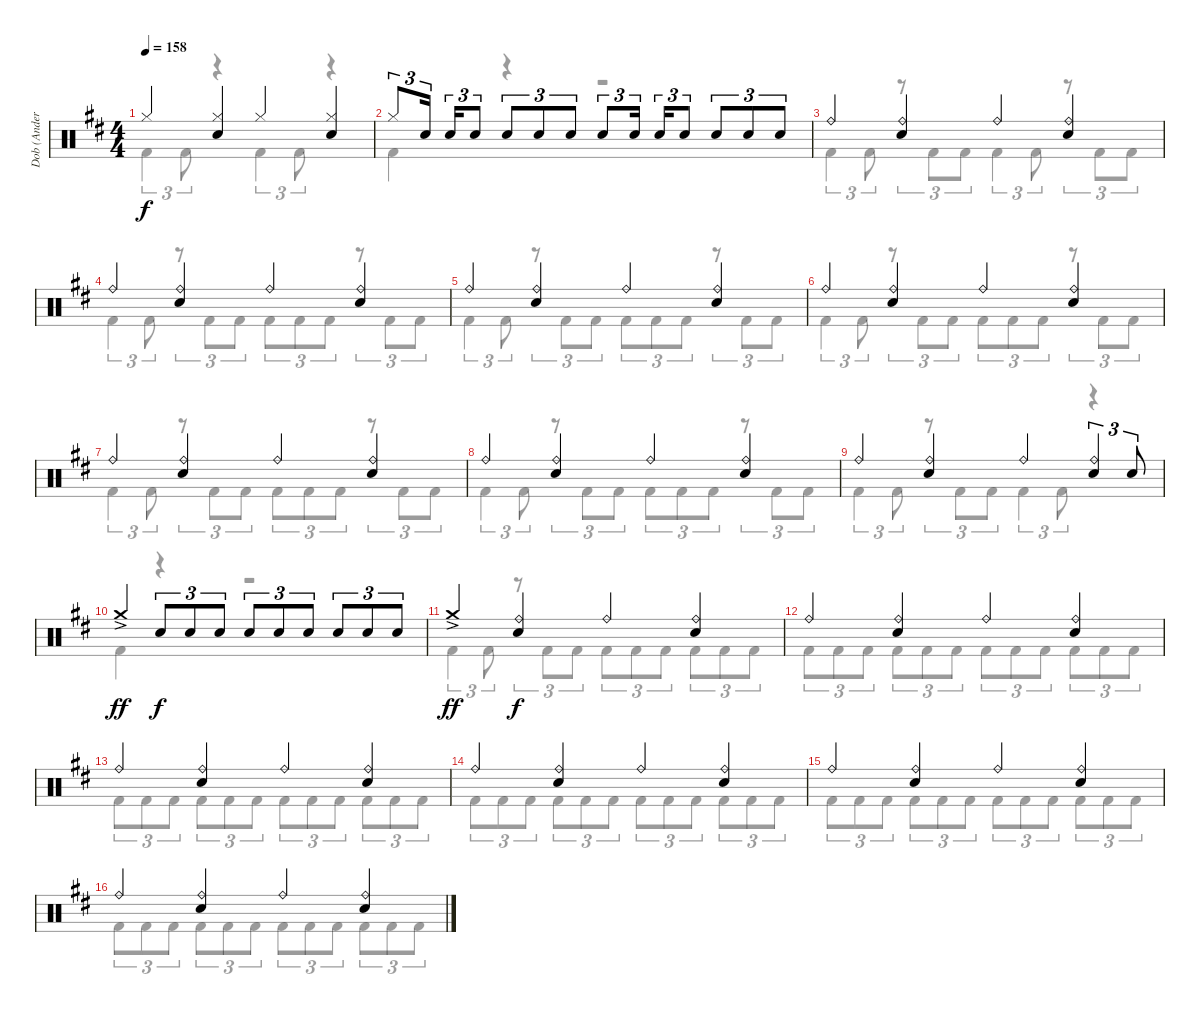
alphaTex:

\track ("Dob (Anders Johansson)" "Dob (Ander") {instrument percussion}
\staff {score}
\articulation defaults
\voice
\ts (4 4)
\tempo 158
\clef neutral
\ks d "Hi-Hat (closed)".4{dy f}
("Hi-Hat (closed)" "Electric Snare (hit)").4 "Hi-Hat (closed)".4 ("Hi-Hat (closed)" "Electric Snare (hit)").4 |
"Hi-Hat (closed)".8{tu (3 2)} "Electric Snare (hit)".16{tu (3 2)} "Electric Snare (hit)".16{tu (3 2)} "Electric Snare (hit)".8{tu (3 2)} "Electric Snare (hit)".8{tu (3 2)} "Electric Snare (hit)".8{tu (3 2)} "Electric Snare (hit)".8{tu (3 2)} "Electric Snare (hit)".8{tu (3 2)} "Electric Snare (hit)".16{tu (3 2)} "Electric Snare (hit)".16{tu (3 2)} "Electric Snare (hit)".8{tu (3 2)} "Electric Snare (hit)".8{tu (3 2)} "Electric Snare (hit)".8{tu (3 2)} "Electric Snare (hit)".8{tu (3 2)} |
"Ride (bell)".4 ("Ride (bell)" "Electric Snare (hit)").4 "Ride (bell)".4 ("Ride (bell)" "Electric Snare (hit)").4 |
"Ride (bell)".4 ("Ride (bell)" "Electric Snare (hit)").4 "Ride (bell)".4 ("Ride (bell)" "Electric Snare (hit)").4 |
"Ride (bell)".4 ("Ride (bell)" "Electric Snare (hit)").4 "Ride (bell)".4 ("Ride (bell)" "Electric Snare (hit)").4 |
"Ride (bell)".4 ("Ride (bell)" "Electric Snare (hit)").4 "Ride (bell)".4 ("Ride (bell)" "Electric Snare (hit)").4 |
"Ride (bell)".4 ("Ride (bell)" "Electric Snare (hit)").4 "Ride (bell)".4 ("Ride (bell)" "Electric Snare (hit)").4 |
"Ride (bell)".4 ("Ride (bell)" "Electric Snare (hit)").4 "Ride (bell)".4 ("Ride (bell)" "Electric Snare (hit)").4 |
"Ride (bell)".4 ("Ride (bell)" "Electric Snare (hit)").4 "Ride (bell)".4 ("Ride (bell)" "Electric Snare (hit)").4{tu (3 2)} "Electric Snare (hit)".8{tu (3 2)} |
"Crash medium (hit)"{ac}.4{dy ff} "Electric Snare (hit)".8{tu (3 2) dy f} "Electric Snare (hit)".8{tu (3 2)} "Electric Snare (hit)".8{tu (3 2)} "Electric Snare (hit)".8{tu (3 2)} "Electric Snare (hit)".8{tu (3 2)} "Electric Snare (hit)".8{tu (3 2)} "Electric Snare (hit)".8{tu (3 2)} "Electric Snare (hit)".8{tu (3 2)} "Electric Snare (hit)".8{tu (3 2)} |
"Crash medium (hit)"{ac}.4{dy ff} ("Ride (bell)" "Electric Snare (hit)").4{dy f} "Ride (bell)".4 ("Ride (bell)" "Electric Snare (hit)").4 |
"Ride (bell)".4 ("Ride (bell)" "Electric Snare (hit)").4 "Ride (bell)".4 ("Ride (bell)" "Electric Snare (hit)").4 |
"Ride (bell)".4 ("Ride (bell)" "Electric Snare (hit)").4 "Ride (bell)".4 ("Ride (bell)" "Electric Snare (hit)").4 |
"Ride (bell)".4 ("Ride (bell)" "Electric Snare (hit)").4 "Ride (bell)".4 ("Ride (bell)" "Electric Snare (hit)").4 |
"Ride (bell)".4 ("Ride (bell)" "Electric Snare (hit)").4 "Ride (bell)".4 ("Ride (bell)" "Electric Snare (hit)").4 |
"Ride (bell)".4 ("Ride (bell)" "Electric Snare (hit)").4 "Ride (bell)".4 ("Ride (bell)" "Electric Snare (hit)").4
\voice
\clef neutral
\ottava regular
\simile none
\ks d "Kick (hit) 2".4{tu (3 2) dy f} "Kick (hit) 2".8{tu (3 2)}
r.4 "Kick (hit) 2".4{tu (3 2)} "Kick (hit) 2".8{tu (3 2)} r.4 |
"Kick (hit) 2".4 r.4 r.2 |
"Kick (hit) 2".4{tu (3 2)} "Kick (hit) 2".8{tu (3 2)} r.8{tu (3 2)} "Kick (hit) 2".8{tu (3 2)} "Kick (hit) 2".8{tu (3 2)} "Kick (hit) 2".4{tu (3 2)} "Kick (hit) 2".8{tu (3 2)} r.8{tu (3 2)} "Kick (hit) 2".8{tu (3 2)} "Kick (hit) 2".8{tu (3 2)} |
"Kick (hit) 2".4{tu (3 2)} "Kick (hit) 2".8{tu (3 2)} r.8{tu (3 2)} "Kick (hit) 2".8{tu (3 2)} "Kick (hit) 2".8{tu (3 2)} "Kick (hit) 2".8{tu (3 2)} "Kick (hit) 2".8{tu (3 2)} "Kick (hit) 2".8{tu (3 2)} r.8{tu (3 2)} "Kick (hit) 2".8{tu (3 2)} "Kick (hit) 2".8{tu (3 2)} |
"Kick (hit) 2".4{tu (3 2)} "Kick (hit) 2".8{tu (3 2)} r.8{tu (3 2)} "Kick (hit) 2".8{tu (3 2)} "Kick (hit) 2".8{tu (3 2)} "Kick (hit) 2".8{tu (3 2)} "Kick (hit) 2".8{tu (3 2)} "Kick (hit) 2".8{tu (3 2)} r.8{tu (3 2)} "Kick (hit) 2".8{tu (3 2)} "Kick (hit) 2".8{tu (3 2)} |
"Kick (hit) 2".4{tu (3 2)} "Kick (hit) 2".8{tu (3 2)} r.8{tu (3 2)} "Kick (hit) 2".8{tu (3 2)} "Kick (hit) 2".8{tu (3 2)} "Kick (hit) 2".8{tu (3 2)} "Kick (hit) 2".8{tu (3 2)} "Kick (hit) 2".8{tu (3 2)} r.8{tu (3 2)} "Kick (hit) 2".8{tu (3 2)} "Kick (hit) 2".8{tu (3 2)} |
"Kick (hit) 2".4{tu (3 2)} "Kick (hit) 2".8{tu (3 2)} r.8{tu (3 2)} "Kick (hit) 2".8{tu (3 2)} "Kick (hit) 2".8{tu (3 2)} "Kick (hit) 2".8{tu (3 2)} "Kick (hit) 2".8{tu (3 2)} "Kick (hit) 2".8{tu (3 2)} r.8{tu (3 2)} "Kick (hit) 2".8{tu (3 2)} "Kick (hit) 2".8{tu (3 2)} |
"Kick (hit) 2".4{tu (3 2)} "Kick (hit) 2".8{tu (3 2)} r.8{tu (3 2)} "Kick (hit) 2".8{tu (3 2)} "Kick (hit) 2".8{tu (3 2)} "Kick (hit) 2".8{tu (3 2)} "Kick (hit) 2".8{tu (3 2)} "Kick (hit) 2".8{tu (3 2)} r.8{tu (3 2)} "Kick (hit) 2".8{tu (3 2)} "Kick (hit) 2".8{tu (3 2)} |
"Kick (hit) 2".4{tu (3 2)} "Kick (hit) 2".8{tu (3 2)} r.8{tu (3 2)} "Kick (hit) 2".8{tu (3 2)} "Kick (hit) 2".8{tu (3 2)} "Kick (hit) 2".4{tu (3 2)} "Kick (hit) 2".8{tu (3 2)} r.4 |
"Kick (hit) 2".4 r.4 r.2 |
"Kick (hit) 2".4{tu (3 2)} "Kick (hit) 2".8{tu (3 2)} r.8{tu (3 2)} "Kick (hit) 2".8{tu (3 2)} "Kick (hit) 2".8{tu (3 2)} "Kick (hit) 2".8{tu (3 2)} "Kick (hit) 2".8{tu (3 2)} "Kick (hit) 2".8{tu (3 2)} "Kick (hit) 2".8{tu (3 2)} "Kick (hit) 2".8{tu (3 2)} "Kick (hit) 2".8{tu (3 2)} |
"Kick (hit) 2".8{tu (3 2)} "Kick (hit) 2".8{tu (3 2)} "Kick (hit) 2".8{tu (3 2)} "Kick (hit) 2".8{tu (3 2)} "Kick (hit) 2".8{tu (3 2)} "Kick (hit) 2".8{tu (3 2)} "Kick (hit) 2".8{tu (3 2)} "Kick (hit) 2".8{tu (3 2)} "Kick (hit) 2".8{tu (3 2)} "Kick (hit) 2".8{tu (3 2)} "Kick (hit) 2".8{tu (3 2)} "Kick (hit) 2".8{tu (3 2)} |
"Kick (hit) 2".8{tu (3 2)} "Kick (hit) 2".8{tu (3 2)} "Kick (hit) 2".8{tu (3 2)} "Kick (hit) 2".8{tu (3 2)} "Kick (hit) 2".8{tu (3 2)} "Kick (hit) 2".8{tu (3 2)} "Kick (hit) 2".8{tu (3 2)} "Kick (hit) 2".8{tu (3 2)} "Kick (hit) 2".8{tu (3 2)} "Kick (hit) 2".8{tu (3 2)} "Kick (hit) 2".8{tu (3 2)} "Kick (hit) 2".8{tu (3 2)} |
"Kick (hit) 2".8{tu (3 2)} "Kick (hit) 2".8{tu (3 2)} "Kick (hit) 2".8{tu (3 2)} "Kick (hit) 2".8{tu (3 2)} "Kick (hit) 2".8{tu (3 2)} "Kick (hit) 2".8{tu (3 2)} "Kick (hit) 2".8{tu (3 2)} "Kick (hit) 2".8{tu (3 2)} "Kick (hit) 2".8{tu (3 2)} "Kick (hit) 2".8{tu (3 2)} "Kick (hit) 2".8{tu (3 2)} "Kick (hit) 2".8{tu (3 2)} |
"Kick (hit) 2".8{tu (3 2)} "Kick (hit) 2".8{tu (3 2)} "Kick (hit) 2".8{tu (3 2)} "Kick (hit) 2".8{tu (3 2)} "Kick (hit) 2".8{tu (3 2)} "Kick (hit) 2".8{tu (3 2)} "Kick (hit) 2".8{tu (3 2)} "Kick (hit) 2".8{tu (3 2)} "Kick (hit) 2".8{tu (3 2)} "Kick (hit) 2".8{tu (3 2)} "Kick (hit) 2".8{tu (3 2)} "Kick (hit) 2".8{tu (3 2)} |
"Kick (hit) 2".8{tu (3 2)} "Kick (hit) 2".8{tu (3 2)} "Kick (hit) 2".8{tu (3 2)} "Kick (hit) 2".8{tu (3 2)} "Kick (hit) 2".8{tu (3 2)} "Kick (hit) 2".8{tu (3 2)} "Kick (hit) 2".8{tu (3 2)} "Kick (hit) 2".8{tu (3 2)} "Kick (hit) 2".8{tu (3 2)} "Kick (hit) 2".8{tu (3 2)} "Kick (hit) 2".8{tu (3 2)} "Kick (hit) 2".8{tu (3 2)}
